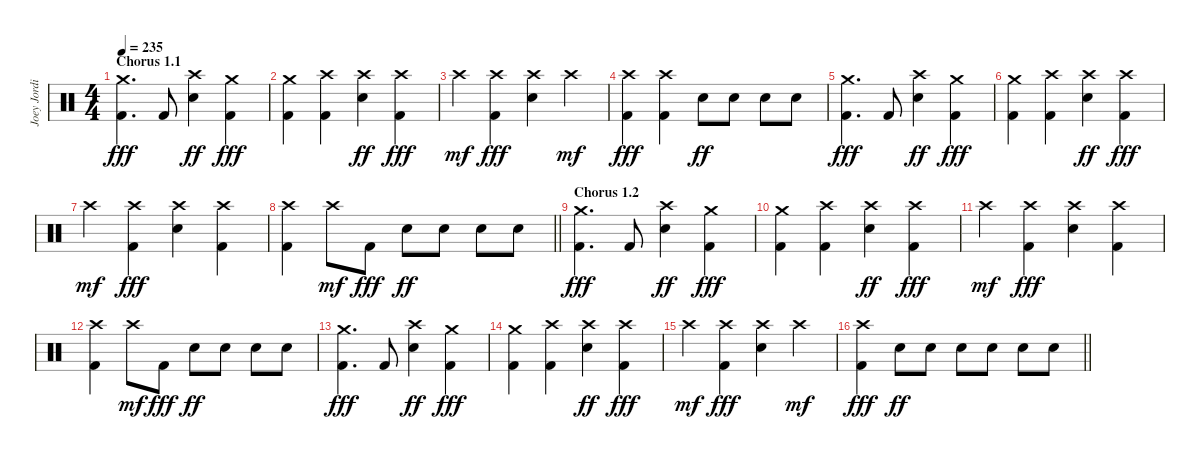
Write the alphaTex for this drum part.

\track ("Joey Jordison" "Joey Jordi") {instrument percussion}
\staff {score}
\articulation defaults
\ts (4 4)
\section ("" "Chorus 1.1")
\tempo 235
\clef neutral
\ks c
("Crash medium (hit)" "Kick (hit) 2").4{d dy fff} "Kick (hit) 2".8 ("Crash high (hit)" "Electric Snare (hit)").4{dy ff} ("Crash medium (hit)" "Kick (hit) 2").4{dy fff} |
("Crash medium (hit)" "Kick (hit) 2").4 ("Crash high (hit)" "Kick (hit) 2").4 ("Crash high (hit)" "Electric Snare (hit)").4{dy ff} ("Crash high (hit)" "Kick (hit) 2").4{dy fff} |
"Crash high (hit)".4{dy mf} ("Crash high (hit)" "Kick (hit) 2").4{dy fff} ("Crash high (hit)" "Electric Snare (hit)").4 "Crash high (hit)".4{dy mf} |
("Crash high (hit)" "Kick (hit) 2").4{dy fff} ("Crash high (hit)" "Kick (hit) 2").4 "Electric Snare (hit)".8{dy ff} "Electric Snare (hit)".8 "Electric Snare (hit)".8 "Electric Snare (hit)".8 |
("Crash medium (hit)" "Kick (hit) 2").4{d dy fff} "Kick (hit) 2".8 ("Crash high (hit)" "Electric Snare (hit)").4{dy ff} ("Crash medium (hit)" "Kick (hit) 2").4{dy fff} |
("Crash medium (hit)" "Kick (hit) 2").4 ("Crash high (hit)" "Kick (hit) 2").4 ("Crash high (hit)" "Electric Snare (hit)").4{dy ff} ("Crash high (hit)" "Kick (hit) 2").4{dy fff} |
"Crash high (hit)".4{dy mf} ("Crash high (hit)" "Kick (hit) 2").4{dy fff} ("Crash high (hit)" "Electric Snare (hit)").4 ("Crash high (hit)" "Kick (hit) 2").4 |
\barLineRight lightlight
("Crash high (hit)" "Kick (hit) 2").4 "Crash high (hit)".8{dy mf} "Kick (hit) 2".8{dy fff} "Electric Snare (hit)".8{dy ff} "Electric Snare (hit)".8 "Electric Snare (hit)".8 "Electric Snare (hit)".8 |
\section ("" "Chorus 1.2")
("Crash medium (hit)" "Kick (hit) 2").4{d dy fff} "Kick (hit) 2".8 ("Crash high (hit)" "Electric Snare (hit)").4{dy ff} ("Crash medium (hit)" "Kick (hit) 2").4{dy fff} |
("Crash medium (hit)" "Kick (hit) 2").4 ("Crash high (hit)" "Kick (hit) 2").4 ("Crash high (hit)" "Electric Snare (hit)").4{dy ff} ("Crash high (hit)" "Kick (hit) 2").4{dy fff} |
"Crash high (hit)".4{dy mf} ("Crash high (hit)" "Kick (hit) 2").4{dy fff} ("Crash high (hit)" "Electric Snare (hit)").4 ("Crash high (hit)" "Kick (hit) 2").4 |
("Crash high (hit)" "Kick (hit) 2").4 "Crash high (hit)".8{dy mf} "Kick (hit) 2".8{dy fff} "Electric Snare (hit)".8{dy ff} "Electric Snare (hit)".8 "Electric Snare (hit)".8 "Electric Snare (hit)".8 |
("Crash medium (hit)" "Kick (hit) 2").4{d dy fff} "Kick (hit) 2".8 ("Crash high (hit)" "Electric Snare (hit)").4{dy ff} ("Crash medium (hit)" "Kick (hit) 2").4{dy fff} |
("Crash medium (hit)" "Kick (hit) 2").4 ("Crash high (hit)" "Kick (hit) 2").4 ("Crash high (hit)" "Electric Snare (hit)").4{dy ff} ("Crash high (hit)" "Kick (hit) 2").4{dy fff} |
"Crash high (hit)".4{dy mf} ("Crash high (hit)" "Kick (hit) 2").4{dy fff} ("Crash high (hit)" "Electric Snare (hit)").4 "Crash high (hit)".4{dy mf} |
\barLineRight lightlight
("Crash high (hit)" "Kick (hit) 2").4{dy fff} "Electric Snare (hit)".8{dy ff} "Electric Snare (hit)".8 "Electric Snare (hit)".8 "Electric Snare (hit)".8 "Electric Snare (hit)".8 "Electric Snare (hit)".8
